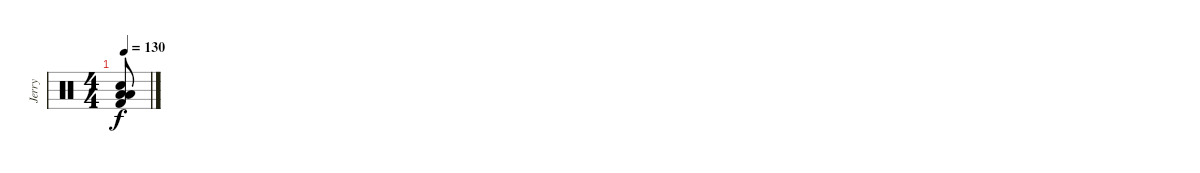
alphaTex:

\track ("Jerry" "Jerry") {instrument percussion}
\staff {score}
\articulation defaults
\ts (4 4)
\tempo 130
\clef neutral
\ks c
("Low Floor Tom (hit)" "Low Tom (hit)" "Electric Snare (hit)" "Kick (hit) 2").8{dy f}
